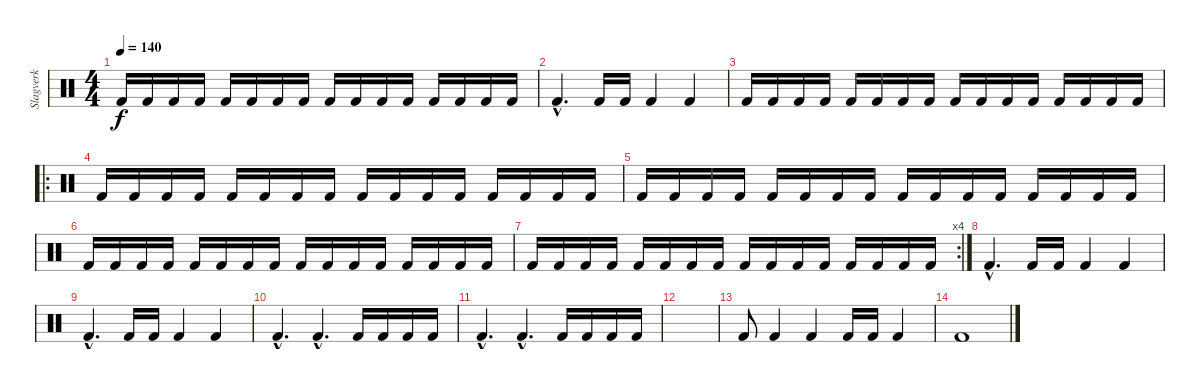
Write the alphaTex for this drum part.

\track ("Slagverk" "Slagverk") {instrument percussion}
\staff {score}
\articulation defaults
\ts (4 4)
\tempo 140
\clef neutral
\ks c "Kick (hit) 2".16{dy f} "Kick (hit) 2".16 "Kick (hit) 2".16 "Kick (hit) 2".16 "Kick (hit) 2".16 "Kick (hit) 2".16 "Kick (hit) 2".16 "Kick (hit) 2".16 "Kick (hit) 2".16 "Kick (hit) 2".16 "Kick (hit) 2".16 "Kick (hit) 2".16 "Kick (hit) 2".16 "Kick (hit) 2".16 "Kick (hit) 2".16 "Kick (hit) 2".16
|
"Kick (hit) 2"{hac}.4{d} "Kick (hit) 2".16 "Kick (hit) 2".16 "Kick (hit) 2".4 "Kick (hit) 2".4 |
"Kick (hit) 2".16 "Kick (hit) 2".16 "Kick (hit) 2".16 "Kick (hit) 2".16 "Kick (hit) 2".16 "Kick (hit) 2".16 "Kick (hit) 2".16 "Kick (hit) 2".16 "Kick (hit) 2".16 "Kick (hit) 2".16 "Kick (hit) 2".16 "Kick (hit) 2".16 "Kick (hit) 2".16 "Kick (hit) 2".16 "Kick (hit) 2".16 "Kick (hit) 2".16 |
\ro "Kick (hit) 2".16 "Kick (hit) 2".16 "Kick (hit) 2".16 "Kick (hit) 2".16 "Kick (hit) 2".16 "Kick (hit) 2".16 "Kick (hit) 2".16 "Kick (hit) 2".16 "Kick (hit) 2".16 "Kick (hit) 2".16 "Kick (hit) 2".16 "Kick (hit) 2".16 "Kick (hit) 2".16 "Kick (hit) 2".16 "Kick (hit) 2".16 "Kick (hit) 2".16
|
"Kick (hit) 2".16 "Kick (hit) 2".16 "Kick (hit) 2".16 "Kick (hit) 2".16 "Kick (hit) 2".16 "Kick (hit) 2".16 "Kick (hit) 2".16 "Kick (hit) 2".16 "Kick (hit) 2".16 "Kick (hit) 2".16 "Kick (hit) 2".16 "Kick (hit) 2".16 "Kick (hit) 2".16 "Kick (hit) 2".16 "Kick (hit) 2".16 "Kick (hit) 2".16 |
"Kick (hit) 2".16 "Kick (hit) 2".16 "Kick (hit) 2".16 "Kick (hit) 2".16 "Kick (hit) 2".16 "Kick (hit) 2".16 "Kick (hit) 2".16 "Kick (hit) 2".16 "Kick (hit) 2".16 "Kick (hit) 2".16 "Kick (hit) 2".16 "Kick (hit) 2".16 "Kick (hit) 2".16 "Kick (hit) 2".16 "Kick (hit) 2".16 "Kick (hit) 2".16 |
\rc 4 "Kick (hit) 2".16 "Kick (hit) 2".16 "Kick (hit) 2".16 "Kick (hit) 2".16 "Kick (hit) 2".16 "Kick (hit) 2".16 "Kick (hit) 2".16 "Kick (hit) 2".16 "Kick (hit) 2".16 "Kick (hit) 2".16 "Kick (hit) 2".16 "Kick (hit) 2".16 "Kick (hit) 2".16 "Kick (hit) 2".16 "Kick (hit) 2".16 "Kick (hit) 2".16
|
"Kick (hit) 2"{hac}.4{d} "Kick (hit) 2".16 "Kick (hit) 2".16 "Kick (hit) 2".4 "Kick (hit) 2".4 |
"Kick (hit) 2"{hac}.4{d} "Kick (hit) 2".16 "Kick (hit) 2".16 "Kick (hit) 2".4 "Kick (hit) 2".4 |
"Kick (hit) 2"{hac}.4{d} "Kick (hit) 2"{hac}.4{d} "Kick (hit) 2".16 "Kick (hit) 2".16 "Kick (hit) 2".16 "Kick (hit) 2".16 |
"Kick (hit) 2"{hac}.4{d} "Kick (hit) 2"{hac}.4{d} "Kick (hit) 2".16 "Kick (hit) 2".16 "Kick (hit) 2".16 "Kick (hit) 2".16 |
|
"Kick (hit) 2".8 "Kick (hit) 2".4 "Kick (hit) 2".4 "Kick (hit) 2".16 "Kick (hit) 2".16 "Kick (hit) 2".4 |
"Kick (hit) 2".1
